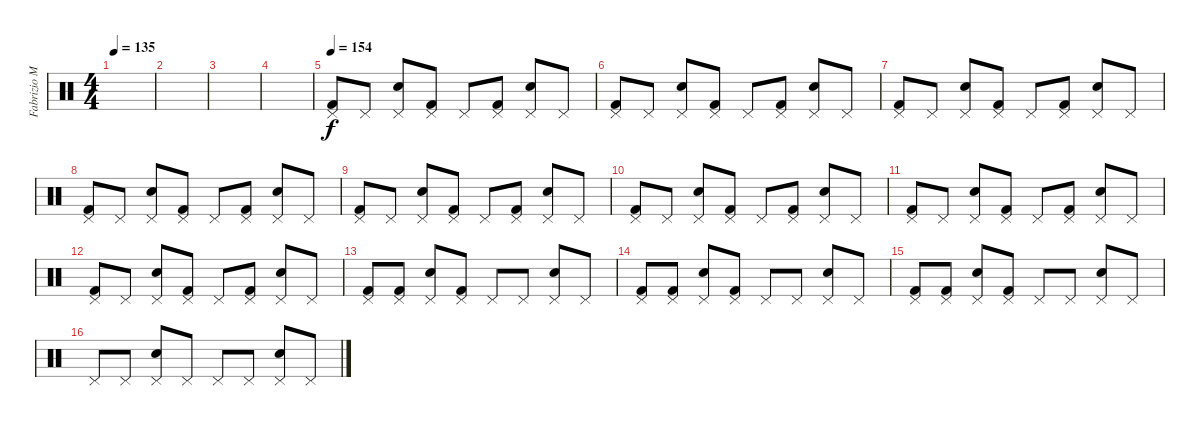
\track ("Fabrizio Moretti" "Fabrizio M") {instrument percussion}
\staff {score}
\articulation defaults
\ts (4 4)
\tempo 135
\clef neutral
\ks c
|
|
|
|
\tempo 154
("Pedal Hi-Hat (hit)" "Kick (hit) 2").8 "Pedal Hi-Hat (hit)".8 ("Pedal Hi-Hat (hit)" "Electric Snare (hit)").8 ("Pedal Hi-Hat (hit)" "Kick (hit) 2").8 "Pedal Hi-Hat (hit)".8 ("Pedal Hi-Hat (hit)" "Kick (hit) 2").8 ("Pedal Hi-Hat (hit)" "Electric Snare (hit)").8 "Pedal Hi-Hat (hit)".8 |
("Pedal Hi-Hat (hit)" "Kick (hit) 2").8 "Pedal Hi-Hat (hit)".8 ("Pedal Hi-Hat (hit)" "Electric Snare (hit)").8 ("Pedal Hi-Hat (hit)" "Kick (hit) 2").8 "Pedal Hi-Hat (hit)".8 ("Pedal Hi-Hat (hit)" "Kick (hit) 2").8 ("Pedal Hi-Hat (hit)" "Electric Snare (hit)").8 "Pedal Hi-Hat (hit)".8 |
("Pedal Hi-Hat (hit)" "Kick (hit) 2").8 "Pedal Hi-Hat (hit)".8 ("Pedal Hi-Hat (hit)" "Electric Snare (hit)").8 ("Pedal Hi-Hat (hit)" "Kick (hit) 2").8 "Pedal Hi-Hat (hit)".8 ("Pedal Hi-Hat (hit)" "Kick (hit) 2").8 ("Pedal Hi-Hat (hit)" "Electric Snare (hit)").8 "Pedal Hi-Hat (hit)".8 |
("Pedal Hi-Hat (hit)" "Kick (hit) 2").8 "Pedal Hi-Hat (hit)".8 ("Pedal Hi-Hat (hit)" "Electric Snare (hit)").8 ("Pedal Hi-Hat (hit)" "Kick (hit) 2").8 "Pedal Hi-Hat (hit)".8 ("Pedal Hi-Hat (hit)" "Kick (hit) 2").8 ("Pedal Hi-Hat (hit)" "Electric Snare (hit)").8 "Pedal Hi-Hat (hit)".8 |
("Pedal Hi-Hat (hit)" "Kick (hit) 2").8 "Pedal Hi-Hat (hit)".8 ("Pedal Hi-Hat (hit)" "Electric Snare (hit)").8 ("Pedal Hi-Hat (hit)" "Kick (hit) 2").8 "Pedal Hi-Hat (hit)".8 ("Pedal Hi-Hat (hit)" "Kick (hit) 2").8 ("Pedal Hi-Hat (hit)" "Electric Snare (hit)").8 "Pedal Hi-Hat (hit)".8 |
("Pedal Hi-Hat (hit)" "Kick (hit) 2").8 "Pedal Hi-Hat (hit)".8 ("Pedal Hi-Hat (hit)" "Electric Snare (hit)").8 ("Pedal Hi-Hat (hit)" "Kick (hit) 2").8 "Pedal Hi-Hat (hit)".8 ("Pedal Hi-Hat (hit)" "Kick (hit) 2").8 ("Pedal Hi-Hat (hit)" "Electric Snare (hit)").8 "Pedal Hi-Hat (hit)".8 |
("Pedal Hi-Hat (hit)" "Kick (hit) 2").8 "Pedal Hi-Hat (hit)".8 ("Pedal Hi-Hat (hit)" "Electric Snare (hit)").8 ("Pedal Hi-Hat (hit)" "Kick (hit) 2").8 "Pedal Hi-Hat (hit)".8 ("Pedal Hi-Hat (hit)" "Kick (hit) 2").8 ("Pedal Hi-Hat (hit)" "Electric Snare (hit)").8 "Pedal Hi-Hat (hit)".8 |
("Pedal Hi-Hat (hit)" "Kick (hit) 2").8 "Pedal Hi-Hat (hit)".8 ("Pedal Hi-Hat (hit)" "Electric Snare (hit)").8 ("Pedal Hi-Hat (hit)" "Kick (hit) 2").8 "Pedal Hi-Hat (hit)".8 ("Pedal Hi-Hat (hit)" "Kick (hit) 2").8 ("Pedal Hi-Hat (hit)" "Electric Snare (hit)").8 "Pedal Hi-Hat (hit)".8 |
("Pedal Hi-Hat (hit)" "Kick (hit) 2").8 ("Pedal Hi-Hat (hit)" "Kick (hit) 2").8 ("Pedal Hi-Hat (hit)" "Electric Snare (hit)").8 ("Pedal Hi-Hat (hit)" "Kick (hit) 2").8 "Pedal Hi-Hat (hit)".8 "Pedal Hi-Hat (hit)".8 ("Pedal Hi-Hat (hit)" "Electric Snare (hit)").8 "Pedal Hi-Hat (hit)".8 |
("Pedal Hi-Hat (hit)" "Kick (hit) 2").8 ("Pedal Hi-Hat (hit)" "Kick (hit) 2").8 ("Pedal Hi-Hat (hit)" "Electric Snare (hit)").8 ("Pedal Hi-Hat (hit)" "Kick (hit) 2").8 "Pedal Hi-Hat (hit)".8 "Pedal Hi-Hat (hit)".8 ("Pedal Hi-Hat (hit)" "Electric Snare (hit)").8 "Pedal Hi-Hat (hit)".8 |
("Pedal Hi-Hat (hit)" "Kick (hit) 2").8 ("Pedal Hi-Hat (hit)" "Kick (hit) 2").8 ("Pedal Hi-Hat (hit)" "Electric Snare (hit)").8 ("Pedal Hi-Hat (hit)" "Kick (hit) 2").8 "Pedal Hi-Hat (hit)".8 "Pedal Hi-Hat (hit)".8 ("Pedal Hi-Hat (hit)" "Electric Snare (hit)").8 "Pedal Hi-Hat (hit)".8 |
"Pedal Hi-Hat (hit)".8 "Pedal Hi-Hat (hit)".8 ("Pedal Hi-Hat (hit)" "Electric Snare (hit)").8 "Pedal Hi-Hat (hit)".8 "Pedal Hi-Hat (hit)".8 "Pedal Hi-Hat (hit)".8 ("Pedal Hi-Hat (hit)" "Electric Snare (hit)").8 "Pedal Hi-Hat (hit)".8
